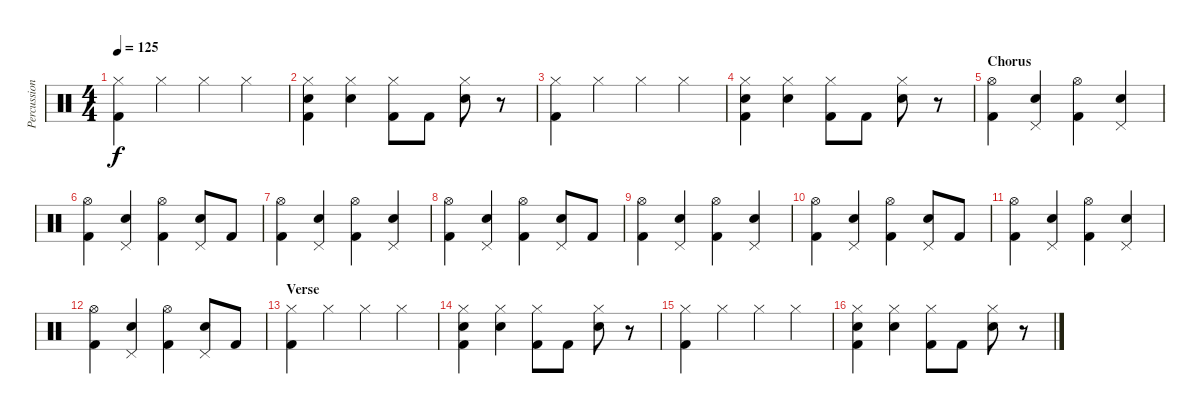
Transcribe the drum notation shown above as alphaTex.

\track ("Percussion" "Percussion") {instrument percussion}
\staff {score}
\articulation defaults
\ts (4 4)
\tempo 125
\clef neutral
\ks c
("Hi-Hat (closed)" "Kick (hit) 2").4{dy f} "Hi-Hat (closed)".4 "Hi-Hat (closed)".4 "Hi-Hat (closed)".4 |
("Hi-Hat (closed)" "Electric Snare (hit)" "Kick (hit) 2").4 ("Hi-Hat (closed)" "Electric Snare (hit)").4 ("Hi-Hat (closed)" "Kick (hit) 2").8 "Kick (hit) 2".8 ("Hi-Hat (closed)" "Electric Snare (hit)").8 r.8 |
("Hi-Hat (closed)" "Kick (hit) 2").4 "Hi-Hat (closed)".4 "Hi-Hat (closed)".4 "Hi-Hat (closed)".4 |
("Hi-Hat (closed)" "Electric Snare (hit)" "Kick (hit) 2").4 ("Hi-Hat (closed)" "Electric Snare (hit)").4 ("Hi-Hat (closed)" "Kick (hit) 2").8 "Kick (hit) 2".8 ("Hi-Hat (closed)" "Electric Snare (hit)").8 r.8 |
\section ("" "Chorus")
("Hi-Hat (open)" "Kick (hit) 2").4 ("Pedal Hi-Hat (hit)" "Electric Snare (hit)").4 ("Hi-Hat (open)" "Kick (hit) 2").4 ("Pedal Hi-Hat (hit)" "Electric Snare (hit)").4 |
("Hi-Hat (open)" "Kick (hit) 2").4 ("Pedal Hi-Hat (hit)" "Electric Snare (hit)").4 ("Hi-Hat (open)" "Kick (hit) 2").4 ("Pedal Hi-Hat (hit)" "Electric Snare (hit)").8 "Kick (hit) 2".8 |
("Hi-Hat (open)" "Kick (hit) 2").4 ("Pedal Hi-Hat (hit)" "Electric Snare (hit)").4 ("Hi-Hat (open)" "Kick (hit) 2").4 ("Pedal Hi-Hat (hit)" "Electric Snare (hit)").4 |
("Hi-Hat (open)" "Kick (hit) 2").4 ("Pedal Hi-Hat (hit)" "Electric Snare (hit)").4 ("Hi-Hat (open)" "Kick (hit) 2").4 ("Pedal Hi-Hat (hit)" "Electric Snare (hit)").8 "Kick (hit) 2".8 |
("Hi-Hat (open)" "Kick (hit) 2").4 ("Pedal Hi-Hat (hit)" "Electric Snare (hit)").4 ("Hi-Hat (open)" "Kick (hit) 2").4 ("Pedal Hi-Hat (hit)" "Electric Snare (hit)").4 |
("Hi-Hat (open)" "Kick (hit) 2").4 ("Pedal Hi-Hat (hit)" "Electric Snare (hit)").4 ("Hi-Hat (open)" "Kick (hit) 2").4 ("Pedal Hi-Hat (hit)" "Electric Snare (hit)").8 "Kick (hit) 2".8 |
("Hi-Hat (open)" "Kick (hit) 2").4 ("Pedal Hi-Hat (hit)" "Electric Snare (hit)").4 ("Hi-Hat (open)" "Kick (hit) 2").4 ("Pedal Hi-Hat (hit)" "Electric Snare (hit)").4 |
("Hi-Hat (open)" "Kick (hit) 2").4 ("Pedal Hi-Hat (hit)" "Electric Snare (hit)").4 ("Hi-Hat (open)" "Kick (hit) 2").4 ("Pedal Hi-Hat (hit)" "Electric Snare (hit)").8 "Kick (hit) 2".8 |
\section ("" "Verse")
("Hi-Hat (closed)" "Kick (hit) 2").4 "Hi-Hat (closed)".4 "Hi-Hat (closed)".4 "Hi-Hat (closed)".4 |
("Hi-Hat (closed)" "Electric Snare (hit)" "Kick (hit) 2").4 ("Hi-Hat (closed)" "Electric Snare (hit)").4 ("Hi-Hat (closed)" "Kick (hit) 2").8 "Kick (hit) 2".8 ("Hi-Hat (closed)" "Electric Snare (hit)").8 r.8 |
("Hi-Hat (closed)" "Kick (hit) 2").4 "Hi-Hat (closed)".4 "Hi-Hat (closed)".4 "Hi-Hat (closed)".4 |
("Hi-Hat (closed)" "Electric Snare (hit)" "Kick (hit) 2").4 ("Hi-Hat (closed)" "Electric Snare (hit)").4 ("Hi-Hat (closed)" "Kick (hit) 2").8 "Kick (hit) 2".8 ("Hi-Hat (closed)" "Electric Snare (hit)").8 r.8
